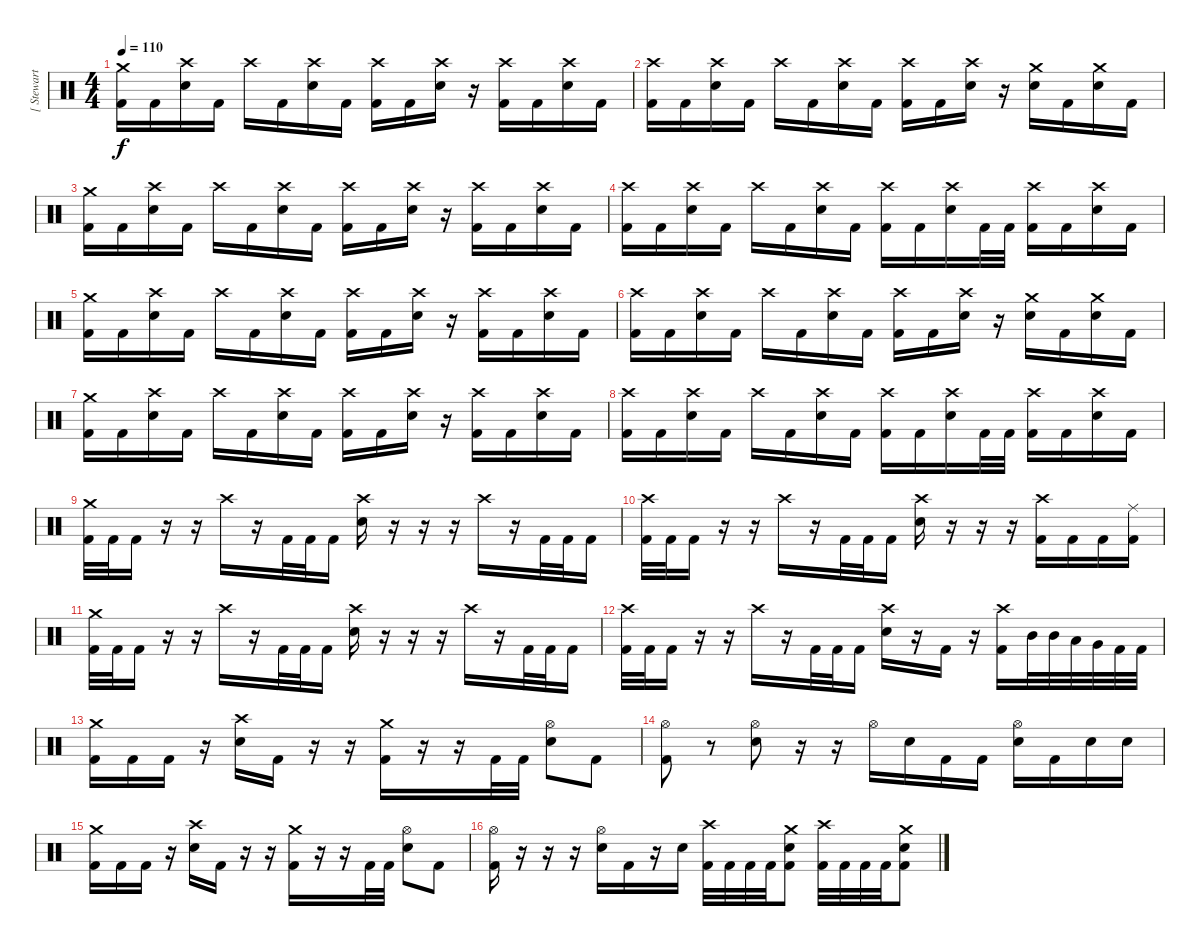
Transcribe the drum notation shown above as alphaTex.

\track ("[ Stewart ]" "[ Stewart ") {instrument percussion}
\staff {score}
\articulation defaults
\ts (4 4)
\tempo 110
\clef neutral
\ks c
("Kick (hit) 2" "Crash medium (hit)").16{dy f} "Kick (hit) 2".16 ("Electric Snare (hit)" "Crash high (hit)").16 "Kick (hit) 2".16 "Crash high (hit)".16 "Kick (hit) 2".16 ("Electric Snare (hit)" "Crash high (hit)").16 "Kick (hit) 2".16 ("Kick (hit) 2" "Crash high (hit)").16 "Kick (hit) 2".16 ("Electric Snare (hit)" "Crash high (hit)").16 r.16 ("Kick (hit) 2" "Crash high (hit)").16 "Kick (hit) 2".16 ("Electric Snare (hit)" "Crash high (hit)").16 "Kick (hit) 2".16 |
("Kick (hit) 2" "Crash high (hit)").16 "Kick (hit) 2".16 ("Electric Snare (hit)" "Crash high (hit)").16 "Kick (hit) 2".16 "Crash high (hit)".16 "Kick (hit) 2".16 ("Electric Snare (hit)" "Crash high (hit)").16 "Kick (hit) 2".16 ("Kick (hit) 2" "Crash high (hit)").16 "Kick (hit) 2".16 ("Electric Snare (hit)" "Crash high (hit)").16 r.16 ("Electric Snare (hit)" "Crash medium (hit)").16 "Kick (hit) 2".16 ("Electric Snare (hit)" "Crash medium (hit)").16 "Kick (hit) 2".16 |
("Kick (hit) 2" "Crash medium (hit)").16 "Kick (hit) 2".16 ("Electric Snare (hit)" "Crash high (hit)").16 "Kick (hit) 2".16 "Crash high (hit)".16 "Kick (hit) 2".16 ("Electric Snare (hit)" "Crash high (hit)").16 "Kick (hit) 2".16 ("Kick (hit) 2" "Crash high (hit)").16 "Kick (hit) 2".16 ("Electric Snare (hit)" "Crash high (hit)").16 r.16 ("Kick (hit) 2" "Crash high (hit)").16 "Kick (hit) 2".16 ("Electric Snare (hit)" "Crash high (hit)").16 "Kick (hit) 2".16 |
("Kick (hit) 2" "Crash high (hit)").16 "Kick (hit) 2".16 ("Electric Snare (hit)" "Crash high (hit)").16 "Kick (hit) 2".16 "Crash high (hit)".16 "Kick (hit) 2".16 ("Electric Snare (hit)" "Crash high (hit)").16 "Kick (hit) 2".16 ("Kick (hit) 2" "Crash high (hit)").16 "Kick (hit) 2".16 ("Electric Snare (hit)" "Crash high (hit)").16 "Kick (hit) 2".32 "Kick (hit) 2".32 ("Kick (hit) 2" "Crash high (hit)").16 "Kick (hit) 2".16 ("Electric Snare (hit)" "Crash high (hit)").16 "Kick (hit) 2".16 |
("Kick (hit) 2" "Crash medium (hit)").16 "Kick (hit) 2".16 ("Electric Snare (hit)" "Crash high (hit)").16 "Kick (hit) 2".16 "Crash high (hit)".16 "Kick (hit) 2".16 ("Electric Snare (hit)" "Crash high (hit)").16 "Kick (hit) 2".16 ("Kick (hit) 2" "Crash high (hit)").16 "Kick (hit) 2".16 ("Electric Snare (hit)" "Crash high (hit)").16 r.16 ("Kick (hit) 2" "Crash high (hit)").16 "Kick (hit) 2".16 ("Electric Snare (hit)" "Crash high (hit)").16 "Kick (hit) 2".16 |
("Kick (hit) 2" "Crash high (hit)").16 "Kick (hit) 2".16 ("Electric Snare (hit)" "Crash high (hit)").16 "Kick (hit) 2".16 "Crash high (hit)".16 "Kick (hit) 2".16 ("Electric Snare (hit)" "Crash high (hit)").16 "Kick (hit) 2".16 ("Kick (hit) 2" "Crash high (hit)").16 "Kick (hit) 2".16 ("Electric Snare (hit)" "Crash high (hit)").16 r.16 ("Electric Snare (hit)" "Crash medium (hit)").16 "Kick (hit) 2".16 ("Electric Snare (hit)" "Crash medium (hit)").16 "Kick (hit) 2".16 |
("Kick (hit) 2" "Crash medium (hit)").16 "Kick (hit) 2".16 ("Electric Snare (hit)" "Crash high (hit)").16 "Kick (hit) 2".16 "Crash high (hit)".16 "Kick (hit) 2".16 ("Electric Snare (hit)" "Crash high (hit)").16 "Kick (hit) 2".16 ("Kick (hit) 2" "Crash high (hit)").16 "Kick (hit) 2".16 ("Electric Snare (hit)" "Crash high (hit)").16 r.16 ("Kick (hit) 2" "Crash high (hit)").16 "Kick (hit) 2".16 ("Electric Snare (hit)" "Crash high (hit)").16 "Kick (hit) 2".16 |
("Kick (hit) 2" "Crash high (hit)").16 "Kick (hit) 2".16 ("Electric Snare (hit)" "Crash high (hit)").16 "Kick (hit) 2".16 "Crash high (hit)".16 "Kick (hit) 2".16 ("Electric Snare (hit)" "Crash high (hit)").16 "Kick (hit) 2".16 ("Kick (hit) 2" "Crash high (hit)").16 "Kick (hit) 2".16 ("Electric Snare (hit)" "Crash high (hit)").16 "Kick (hit) 2".32 "Kick (hit) 2".32 ("Kick (hit) 2" "Crash high (hit)").16 "Kick (hit) 2".16 ("Electric Snare (hit)" "Crash high (hit)").16 "Kick (hit) 2".16 |
("Kick (hit) 2" "Crash medium (hit)").32 "Kick (hit) 2".32 "Kick (hit) 2".16 r.16 r.16 "Crash high (hit)".16 r.16 "Kick (hit) 2".32 "Kick (hit) 2".32 "Kick (hit) 2".16 ("Electric Snare (hit)" "Crash high (hit)").16 r.16 r.16 r.16 "Crash high (hit)".16 r.16 "Kick (hit) 2".32 "Kick (hit) 2".32 "Kick (hit) 2".16 |
("Kick (hit) 2" "Crash high (hit)").32 "Kick (hit) 2".32 "Kick (hit) 2".16 r.16 r.16 "Crash high (hit)".16 r.16 "Kick (hit) 2".32 "Kick (hit) 2".32 "Kick (hit) 2".16 ("Electric Snare (hit)" "Crash high (hit)").16 r.16 r.16 r.16 ("Kick (hit) 2" "Crash high (hit)").16 "Kick (hit) 2".16 "Kick (hit) 2".16 ("Kick (hit) 2" "Ride (middle)").16 |
("Kick (hit) 2" "Crash medium (hit)").32 "Kick (hit) 2".32 "Kick (hit) 2".16 r.16 r.16 "Crash high (hit)".16 r.16 "Kick (hit) 2".32 "Kick (hit) 2".32 "Kick (hit) 2".16 ("Electric Snare (hit)" "Crash high (hit)").16 r.16 r.16 r.16 "Crash high (hit)".16 r.16 "Kick (hit) 2".32 "Kick (hit) 2".32 "Kick (hit) 2".16 |
("Kick (hit) 2" "Crash high (hit)").32 "Kick (hit) 2".32 "Kick (hit) 2".16 r.16 r.16 "Crash high (hit)".16 r.16 "Kick (hit) 2".32 "Kick (hit) 2".32 "Kick (hit) 2".16 ("Electric Snare (hit)" "Crash high (hit)").16 r.16 "Kick (hit) 2".16 r.16 ("Kick (hit) 2" "Crash high (hit)").16 "Mid Tom (hit)".32 "Mid Tom (hit)".32 "Low Tom (hit)".32 "Very Low Tom (hit)".32 "Kick (hit) 2".32 "Kick (hit) 2".32 |
("Kick (hit) 2" "Crash medium (hit)").16 "Kick (hit) 2".16 "Kick (hit) 2".16 r.16 ("Electric Snare (hit)" "Crash high (hit)").16 "Kick (hit) 2".16 r.16 r.16 ("Kick (hit) 2" "Crash medium (hit)").16 r.16 r.16 "Kick (hit) 2".32 "Kick (hit) 2".32 ("Electric Snare (hit)" "Hi-Hat (open)").8 "Kick (hit) 2".8 |
("Kick (hit) 2" "Hi-Hat (open)").8 r.8 ("Electric Snare (hit)" "Hi-Hat (open)").8 r.16 r.16 "Hi-Hat (open)".16 "Electric Snare (hit)".16 "Kick (hit) 2".16 "Kick (hit) 2".16 ("Electric Snare (hit)" "Hi-Hat (open)").16 "Kick (hit) 2".16 "Electric Snare (hit)".16 "Electric Snare (hit)".16 |
("Kick (hit) 2" "Crash medium (hit)").16 "Kick (hit) 2".16 "Kick (hit) 2".16 r.16 ("Electric Snare (hit)" "Crash high (hit)").16 "Kick (hit) 2".16 r.16 r.16 ("Kick (hit) 2" "Crash medium (hit)").16 r.16 r.16 "Kick (hit) 2".32 "Kick (hit) 2".32 ("Electric Snare (hit)" "Hi-Hat (open)").8 "Kick (hit) 2".8 |
("Kick (hit) 2" "Hi-Hat (open)").16 r.16 r.16 r.16 ("Electric Snare (hit)" "Hi-Hat (open)").16 "Kick (hit) 2".16 r.16 "Electric Snare (hit)".16 ("Kick (hit) 2" "Crash high (hit)").32 "Kick (hit) 2".32 "Kick (hit) 2".32 "Kick (hit) 2".32 ("Kick (hit) 2" "Electric Snare (hit)" "Crash medium (hit)").8 ("Kick (hit) 2" "Crash high (hit)").32 "Kick (hit) 2".32 "Kick (hit) 2".32 "Kick (hit) 2".32 ("Kick (hit) 2" "Electric Snare (hit)" "Crash medium (hit)").8
